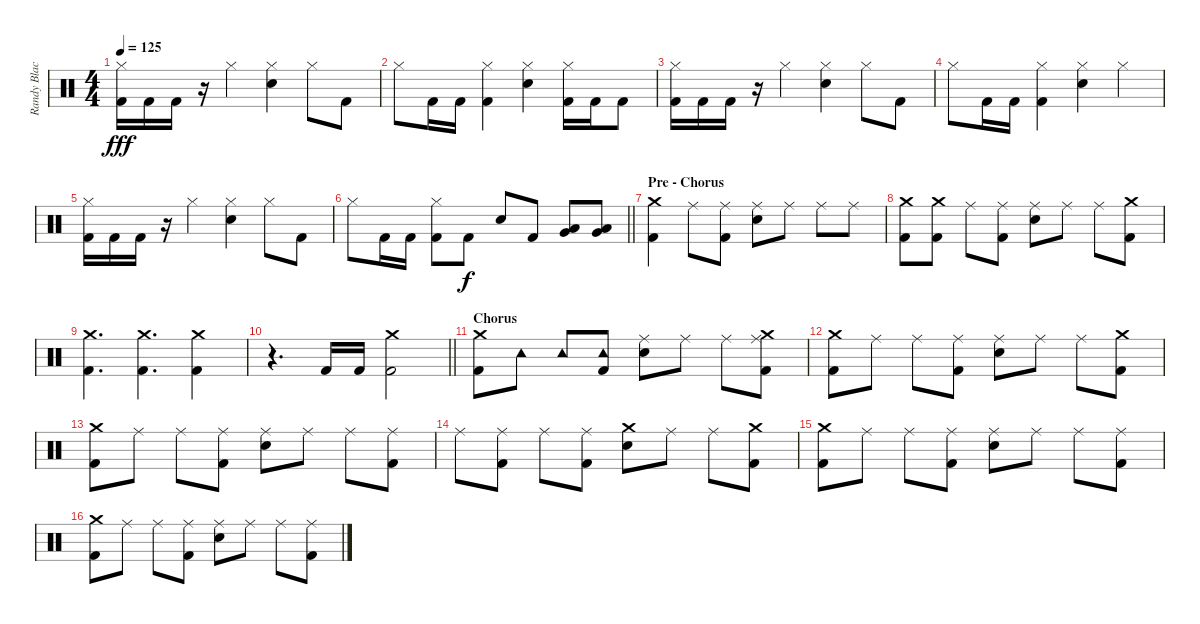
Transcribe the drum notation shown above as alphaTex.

\track ("Randy Black" "Randy Blac") {instrument percussion}
\staff {score}
\articulation defaults
\ts (4 4)
\tempo 125
\clef neutral
\ks c
("Hi-Hat (closed)" "Kick (hit) 2").16{dy fff} "Kick (hit) 2".16 "Kick (hit) 2".16 r.16 "Hi-Hat (closed)".4 ("Hi-Hat (closed)" "Electric Snare (hit)").4 "Hi-Hat (closed)".8 "Kick (hit) 2".8 |
"Hi-Hat (closed)".8 "Kick (hit) 2".16 "Kick (hit) 2".16 ("Hi-Hat (closed)" "Kick (hit) 2").4 ("Hi-Hat (closed)" "Electric Snare (hit)").4 ("Hi-Hat (closed)" "Kick (hit) 2").16 "Kick (hit) 2".16 "Kick (hit) 2".8 |
("Hi-Hat (closed)" "Kick (hit) 2").16 "Kick (hit) 2".16 "Kick (hit) 2".16 r.16 "Hi-Hat (closed)".4 ("Hi-Hat (closed)" "Electric Snare (hit)").4 "Hi-Hat (closed)".8 "Kick (hit) 2".8 |
"Hi-Hat (closed)".8 "Kick (hit) 2".16 "Kick (hit) 2".16 ("Hi-Hat (closed)" "Kick (hit) 2").4 ("Hi-Hat (closed)" "Electric Snare (hit)").4 "Hi-Hat (closed)".4 |
("Hi-Hat (closed)" "Kick (hit) 2").16 "Kick (hit) 2".16 "Kick (hit) 2".16 r.16 "Hi-Hat (closed)".4 ("Hi-Hat (closed)" "Electric Snare (hit)").4 "Hi-Hat (closed)".8 "Kick (hit) 2".8 |
\barLineRight lightlight "Hi-Hat (closed)".8 "Kick (hit) 2".16 "Kick (hit) 2".16
("Hi-Hat (closed)" "Kick (hit) 2").8 "Kick (hit) 2".8{dy f} "Electric Snare (hit)".8 "Kick (hit) 2".8 ("Low Tom (hit)" "Very Low Tom (hit)").8 ("Very Low Tom (hit)" "Low Floor Tom (hit)").8 |
\section ("" "Pre - Chorus")
("Crash medium (hit)" "Kick (hit) 2").4 "Ride (middle)".8 ("Ride (middle)" "Kick (hit) 2").8 ("Ride (middle)" "Electric Snare (hit)").8 "Ride (middle)".8 "Ride (middle)".8 "Ride (middle)".8 |
("Crash medium (hit)" "Kick (hit) 2").8 ("Crash medium (hit)" "Kick (hit) 2").8 "Ride (middle)".8 ("Ride (middle)" "Kick (hit) 2").8 ("Ride (middle)" "Electric Snare (hit)").8 "Ride (middle)".8 "Ride (middle)".8 ("Crash medium (hit)" "Kick (hit) 2").8 |
("Crash medium (hit)" "Kick (hit) 2").4{d} ("Crash medium (hit)" "Kick (hit) 2").4{d} ("Crash medium (hit)" "Kick (hit) 2").4 |
\barLineRight lightlight
r.4{d} "Kick (hit) 2".16 "Kick (hit) 2".16 ("Crash medium (hit)" "Kick (hit) 2").2 |
\section ("" "Chorus")
("Crash medium (hit)" "Kick (hit) 2").8 "Tambourine (hit)".8 "Tambourine (hit)".8 ("Tambourine (hit)" "Kick (hit) 2").8 ("Ride (middle)" "Electric Snare (hit)").8 "Ride (middle)".8 "Ride (middle)".8 ("Crash medium (hit)" "Ride (middle)" "Kick (hit) 2").8 |
("Crash medium (hit)" "Kick (hit) 2").8 "Ride (middle)".8 "Ride (middle)".8 ("Ride (middle)" "Kick (hit) 2").8 ("Ride (middle)" "Electric Snare (hit)").8 "Ride (middle)".8 "Ride (middle)".8 ("Crash medium (hit)" "Kick (hit) 2").8 |
("Crash medium (hit)" "Kick (hit) 2").8 "Ride (middle)".8 "Ride (middle)".8 ("Ride (middle)" "Kick (hit) 2").8 ("Ride (middle)" "Electric Snare (hit)").8 "Ride (middle)".8 "Ride (middle)".8 ("Ride (middle)" "Kick (hit) 2").8 |
"Ride (middle)".8 ("Ride (middle)" "Kick (hit) 2").8 "Ride (middle)".8 ("Ride (middle)" "Kick (hit) 2").8 ("Crash medium (hit)" "Electric Snare (hit)").8 "Ride (middle)".8 "Ride (middle)".8 ("Crash medium (hit)" "Kick (hit) 2").8 |
("Crash medium (hit)" "Kick (hit) 2").8 "Ride (middle)".8 "Ride (middle)".8 ("Ride (middle)" "Kick (hit) 2").8 ("Ride (middle)" "Electric Snare (hit)").8 "Ride (middle)".8 "Ride (middle)".8 ("Ride (middle)" "Kick (hit) 2").8 |
("Crash medium (hit)" "Kick (hit) 2").8 "Ride (middle)".8 "Ride (middle)".8 ("Ride (middle)" "Kick (hit) 2").8 ("Ride (middle)" "Electric Snare (hit)").8 "Ride (middle)".8 "Ride (middle)".8 ("Ride (middle)" "Kick (hit) 2").8
